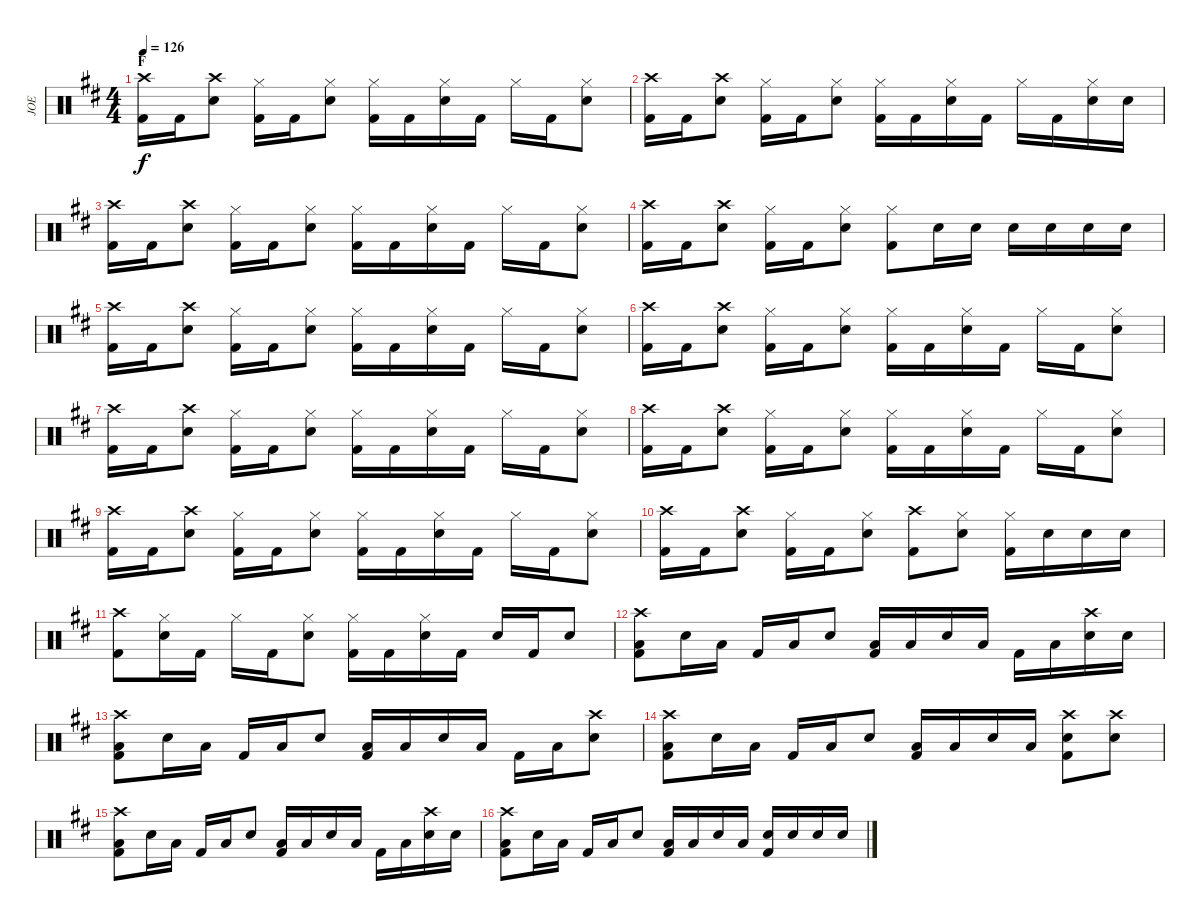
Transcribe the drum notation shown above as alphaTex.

\track ("JOE" "JOE") {instrument percussion}
\staff {score}
\articulation defaults
\ts (4 4)
\section ("" "F")
\tempo 126
\clef neutral
\ks d
("Crash high (hit)" "Kick (hit) 2").16{dy f} "Kick (hit) 2".16 ("Crash high (hit)" "Snare (hit) 2").8 ("Hi-Hat (closed)" "Kick (hit) 2").16 "Kick (hit) 2".16 ("Hi-Hat (closed)" "Snare (hit) 2").8 ("Hi-Hat (closed)" "Kick (hit) 2").16 "Kick (hit) 2".16 ("Hi-Hat (closed)" "Snare (hit) 2").16 "Kick (hit) 2".16 "Hi-Hat (closed)".16 "Kick (hit) 2".16 ("Hi-Hat (closed)" "Snare (hit) 2").8 |
("Crash high (hit)" "Kick (hit) 2").16 "Kick (hit) 2".16 ("Crash high (hit)" "Snare (hit) 2").8 ("Hi-Hat (closed)" "Kick (hit) 2").16 "Kick (hit) 2".16 ("Hi-Hat (closed)" "Snare (hit) 2").8 ("Hi-Hat (closed)" "Kick (hit) 2").16 "Kick (hit) 2".16 ("Hi-Hat (closed)" "Snare (hit) 2").16 "Kick (hit) 2".16 "Hi-Hat (closed)".16 "Kick (hit) 2".16 ("Hi-Hat (closed)" "Snare (hit) 2").16 "Snare (hit) 2".16 |
("Crash high (hit)" "Kick (hit) 2").16 "Kick (hit) 2".16 ("Crash high (hit)" "Snare (hit) 2").8 ("Hi-Hat (closed)" "Kick (hit) 2").16 "Kick (hit) 2".16 ("Hi-Hat (closed)" "Snare (hit) 2").8 ("Hi-Hat (closed)" "Kick (hit) 2").16 "Kick (hit) 2".16 ("Hi-Hat (closed)" "Snare (hit) 2").16 "Kick (hit) 2".16 "Hi-Hat (closed)".16 "Kick (hit) 2".16 ("Hi-Hat (closed)" "Snare (hit) 2").8 |
("Crash high (hit)" "Kick (hit) 2").16 "Kick (hit) 2".16 ("Crash high (hit)" "Snare (hit) 2").8 ("Hi-Hat (closed)" "Kick (hit) 2").16 "Kick (hit) 2".16 ("Hi-Hat (closed)" "Snare (hit) 2").8 ("Hi-Hat (closed)" "Kick (hit) 2").8 "Snare (hit) 2".16 "Snare (hit) 2".16 "Snare (hit) 2".16 "Snare (hit) 2".16 "Snare (hit) 2".16 "Snare (hit) 2".16 |
("Crash high (hit)" "Kick (hit) 2").16 "Kick (hit) 2".16 ("Crash high (hit)" "Snare (hit) 2").8 ("Hi-Hat (closed)" "Kick (hit) 2").16 "Kick (hit) 2".16 ("Hi-Hat (closed)" "Snare (hit) 2").8 ("Hi-Hat (closed)" "Kick (hit) 2").16 "Kick (hit) 2".16 ("Hi-Hat (closed)" "Snare (hit) 2").16 "Kick (hit) 2".16 "Hi-Hat (closed)".16 "Kick (hit) 2".16 ("Hi-Hat (closed)" "Snare (hit) 2").8 |
("Crash high (hit)" "Kick (hit) 2").16 "Kick (hit) 2".16 ("Crash high (hit)" "Snare (hit) 2").8 ("Hi-Hat (closed)" "Kick (hit) 2").16 "Kick (hit) 2".16 ("Hi-Hat (closed)" "Snare (hit) 2").8 ("Hi-Hat (closed)" "Kick (hit) 2").16 "Kick (hit) 2".16 ("Hi-Hat (closed)" "Snare (hit) 2").16 "Kick (hit) 2".16 "Hi-Hat (closed)".16 "Kick (hit) 2".16 ("Hi-Hat (closed)" "Snare (hit) 2").8 |
("Crash high (hit)" "Kick (hit) 2").16 "Kick (hit) 2".16 ("Crash high (hit)" "Snare (hit) 2").8 ("Hi-Hat (closed)" "Kick (hit) 2").16 "Kick (hit) 2".16 ("Hi-Hat (closed)" "Snare (hit) 2").8 ("Hi-Hat (closed)" "Kick (hit) 2").16 "Kick (hit) 2".16 ("Hi-Hat (closed)" "Snare (hit) 2").16 "Kick (hit) 2".16 "Hi-Hat (closed)".16 "Kick (hit) 2".16 ("Hi-Hat (closed)" "Snare (hit) 2").8 |
("Crash high (hit)" "Kick (hit) 2").16 "Kick (hit) 2".16 ("Crash high (hit)" "Snare (hit) 2").8 ("Hi-Hat (closed)" "Kick (hit) 2").16 "Kick (hit) 2".16 ("Hi-Hat (closed)" "Snare (hit) 2").8 ("Hi-Hat (closed)" "Kick (hit) 2").16 "Kick (hit) 2".16 ("Hi-Hat (closed)" "Snare (hit) 2").16 "Kick (hit) 2".16 "Hi-Hat (closed)".16 "Kick (hit) 2".16 ("Hi-Hat (closed)" "Snare (hit) 2").8 |
("Crash high (hit)" "Kick (hit) 2").16 "Kick (hit) 2".16 ("Crash high (hit)" "Snare (hit) 2").8 ("Hi-Hat (closed)" "Kick (hit) 2").16 "Kick (hit) 2".16 ("Hi-Hat (closed)" "Snare (hit) 2").8 ("Hi-Hat (closed)" "Kick (hit) 2").16 "Kick (hit) 2".16 ("Hi-Hat (closed)" "Snare (hit) 2").16 "Kick (hit) 2".16 "Hi-Hat (closed)".16 "Kick (hit) 2".16 ("Hi-Hat (closed)" "Snare (hit) 2").8 |
("Crash high (hit)" "Kick (hit) 2").16 "Kick (hit) 2".16 ("Crash high (hit)" "Snare (hit) 2").8 ("Hi-Hat (closed)" "Kick (hit) 2").16 "Kick (hit) 2".16 ("Hi-Hat (closed)" "Snare (hit) 2").8 ("Crash high (hit)" "Kick (hit) 2").8 ("Hi-Hat (closed)" "Snare (hit) 2").8 ("Hi-Hat (closed)" "Kick (hit) 2").16 "Snare (hit) 2".16 "Snare (hit) 2".16 "Snare (hit) 2".16 |
("Crash high (hit)" "Kick (hit) 2").8 ("Hi-Hat (closed)" "Snare (hit) 2").16 "Kick (hit) 2".16 "Hi-Hat (closed)".16 "Kick (hit) 2".16 ("Hi-Hat (closed)" "Snare (hit) 2").8 ("Hi-Hat (closed)" "Kick (hit) 2").16 "Kick (hit) 2".16 ("Hi-Hat (closed)" "Snare (hit) 2").16 "Kick (hit) 2".16 "Snare (hit) 2".16 "Kick (hit) 2".16 "Snare (hit) 2".8 |
("Crash high (hit)" "Low Floor Tom (hit)" "Kick (hit) 2").8 "Snare (hit) 2".16 "Low Floor Tom (hit)".16 "Kick (hit) 2".16 "Low Floor Tom (hit)".16 "Snare (hit) 2".8 ("Low Floor Tom (hit)" "Kick (hit) 2").16 "Low Floor Tom (hit)".16 "Snare (hit) 2".16 "Low Floor Tom (hit)".16 "Kick (hit) 2".16 "Low Floor Tom (hit)".16 ("Crash high (hit)" "Snare (hit) 2").16 "Snare (hit) 2".16 |
("Crash high (hit)" "Low Floor Tom (hit)" "Kick (hit) 2").8 "Snare (hit) 2".16 "Low Floor Tom (hit)".16 "Kick (hit) 2".16 "Low Floor Tom (hit)".16 "Snare (hit) 2".8 ("Low Floor Tom (hit)" "Kick (hit) 2").16 "Low Floor Tom (hit)".16 "Snare (hit) 2".16 "Low Floor Tom (hit)".16 "Kick (hit) 2".16 "Low Floor Tom (hit)".16 ("Crash high (hit)" "Snare (hit) 2").8 |
("Crash high (hit)" "Low Floor Tom (hit)" "Kick (hit) 2").8 "Snare (hit) 2".16 "Low Floor Tom (hit)".16 "Kick (hit) 2".16 "Low Floor Tom (hit)".16 "Snare (hit) 2".8 ("Low Floor Tom (hit)" "Kick (hit) 2").16 "Low Floor Tom (hit)".16 "Snare (hit) 2".16 "Low Floor Tom (hit)".16 ("Crash high (hit)" "Snare (hit) 2" "Kick (hit) 2").8 ("Crash high (hit)" "Snare (hit) 2").8 |
("Crash high (hit)" "Low Floor Tom (hit)" "Kick (hit) 2").8 "Snare (hit) 2".16 "Low Floor Tom (hit)".16 "Kick (hit) 2".16 "Low Floor Tom (hit)".16 "Snare (hit) 2".8 ("Low Floor Tom (hit)" "Kick (hit) 2").16 "Low Floor Tom (hit)".16 "Snare (hit) 2".16 "Low Floor Tom (hit)".16 "Kick (hit) 2".16 "Low Floor Tom (hit)".16 ("Crash high (hit)" "Snare (hit) 2").16 "Snare (hit) 2".16 |
("Crash high (hit)" "Low Floor Tom (hit)" "Kick (hit) 2").8 "Snare (hit) 2".16 "Low Floor Tom (hit)".16 "Kick (hit) 2".16 "Low Floor Tom (hit)".16 "Snare (hit) 2".8 ("Low Floor Tom (hit)" "Kick (hit) 2").16 "Low Floor Tom (hit)".16 "Snare (hit) 2".16 "Low Floor Tom (hit)".16 ("Snare (hit) 2" "Kick (hit) 2").16 "Snare (hit) 2".16 "Snare (hit) 2".16 "Snare (hit) 2".16
